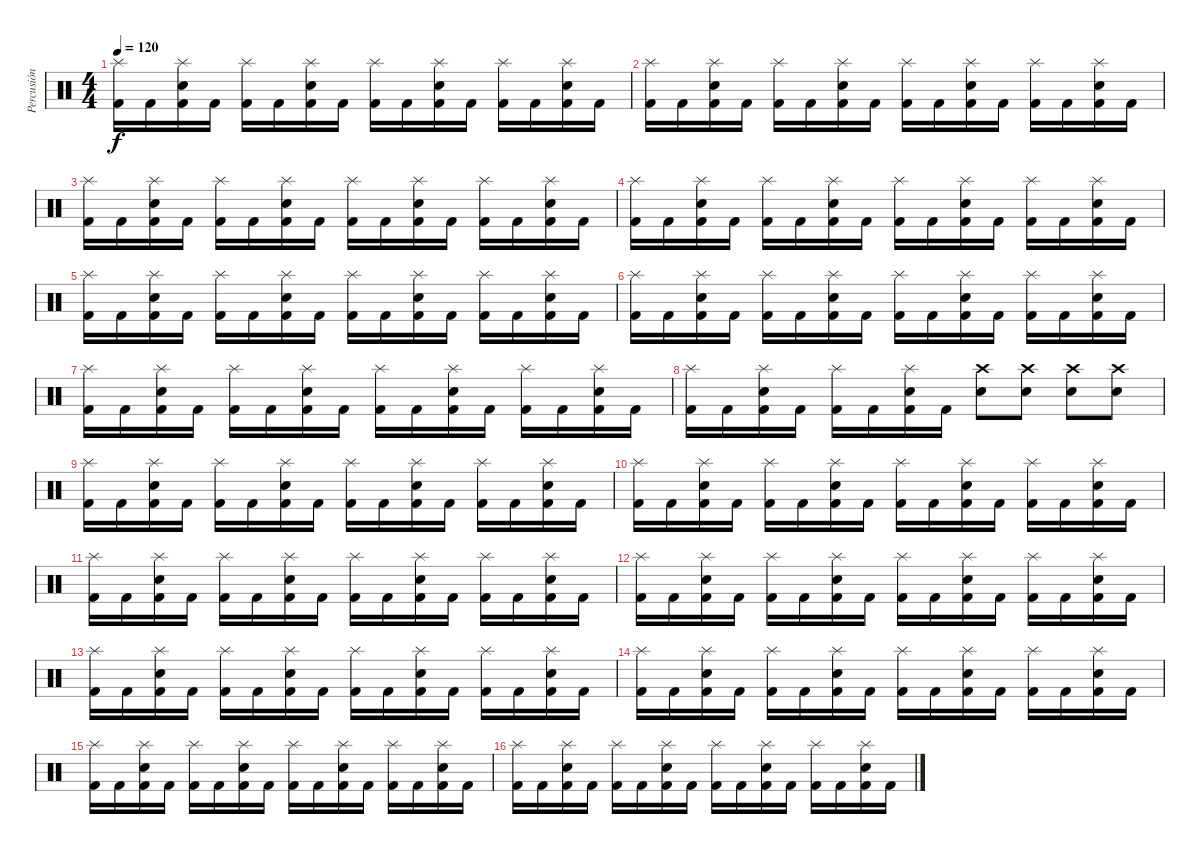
\track ("Percusión" "Percusión") {instrument percussion}
\staff {score}
\articulation defaults
\ts (4 4)
\tempo 120
\clef neutral
\ks c
("Kick (hit) 2" "Splash (hit)").16{dy f} "Kick (hit) 2".16 ("Kick (hit) 2" "Splash (hit)" "Electric Snare (hit)").16 "Kick (hit) 2".16 ("Kick (hit) 2" "Splash (hit)").16 "Kick (hit) 2".16 ("Kick (hit) 2" "Splash (hit)" "Electric Snare (hit)").16 "Kick (hit) 2".16 ("Kick (hit) 2" "Splash (hit)").16 "Kick (hit) 2".16 ("Kick (hit) 2" "Splash (hit)" "Electric Snare (hit)").16 "Kick (hit) 2".16 ("Kick (hit) 2" "Splash (hit)").16 "Kick (hit) 2".16 ("Kick (hit) 2" "Splash (hit)" "Electric Snare (hit)").16 "Kick (hit) 2".16 |
("Kick (hit) 2" "Splash (hit)").16 "Kick (hit) 2".16 ("Kick (hit) 2" "Splash (hit)" "Electric Snare (hit)").16 "Kick (hit) 2".16 ("Kick (hit) 2" "Splash (hit)").16 "Kick (hit) 2".16 ("Kick (hit) 2" "Splash (hit)" "Electric Snare (hit)").16 "Kick (hit) 2".16 ("Kick (hit) 2" "Splash (hit)").16 "Kick (hit) 2".16 ("Kick (hit) 2" "Splash (hit)" "Electric Snare (hit)").16 "Kick (hit) 2".16 ("Kick (hit) 2" "Splash (hit)").16 "Kick (hit) 2".16 ("Kick (hit) 2" "Splash (hit)" "Electric Snare (hit)").16 "Kick (hit) 2".16 |
("Kick (hit) 2" "Splash (hit)").16 "Kick (hit) 2".16 ("Kick (hit) 2" "Splash (hit)" "Electric Snare (hit)").16 "Kick (hit) 2".16 ("Kick (hit) 2" "Splash (hit)").16 "Kick (hit) 2".16 ("Kick (hit) 2" "Splash (hit)" "Electric Snare (hit)").16 "Kick (hit) 2".16 ("Kick (hit) 2" "Splash (hit)").16 "Kick (hit) 2".16 ("Kick (hit) 2" "Splash (hit)" "Electric Snare (hit)").16 "Kick (hit) 2".16 ("Kick (hit) 2" "Splash (hit)").16 "Kick (hit) 2".16 ("Kick (hit) 2" "Splash (hit)" "Electric Snare (hit)").16 "Kick (hit) 2".16 |
("Kick (hit) 2" "Splash (hit)").16 "Kick (hit) 2".16 ("Kick (hit) 2" "Splash (hit)" "Electric Snare (hit)").16 "Kick (hit) 2".16 ("Kick (hit) 2" "Splash (hit)").16 "Kick (hit) 2".16 ("Kick (hit) 2" "Splash (hit)" "Electric Snare (hit)").16 "Kick (hit) 2".16 ("Kick (hit) 2" "Splash (hit)").16 "Kick (hit) 2".16 ("Kick (hit) 2" "Splash (hit)" "Electric Snare (hit)").16 "Kick (hit) 2".16 ("Kick (hit) 2" "Splash (hit)").16 "Kick (hit) 2".16 ("Kick (hit) 2" "Splash (hit)" "Electric Snare (hit)").16 "Kick (hit) 2".16 |
("Kick (hit) 2" "Splash (hit)").16 "Kick (hit) 2".16 ("Kick (hit) 2" "Splash (hit)" "Electric Snare (hit)").16 "Kick (hit) 2".16 ("Kick (hit) 2" "Splash (hit)").16 "Kick (hit) 2".16 ("Kick (hit) 2" "Splash (hit)" "Electric Snare (hit)").16 "Kick (hit) 2".16 ("Kick (hit) 2" "Splash (hit)").16 "Kick (hit) 2".16 ("Kick (hit) 2" "Splash (hit)" "Electric Snare (hit)").16 "Kick (hit) 2".16 ("Kick (hit) 2" "Splash (hit)").16 "Kick (hit) 2".16 ("Kick (hit) 2" "Splash (hit)" "Electric Snare (hit)").16 "Kick (hit) 2".16 |
("Kick (hit) 2" "Splash (hit)").16 "Kick (hit) 2".16 ("Kick (hit) 2" "Splash (hit)" "Electric Snare (hit)").16 "Kick (hit) 2".16 ("Kick (hit) 2" "Splash (hit)").16 "Kick (hit) 2".16 ("Kick (hit) 2" "Splash (hit)" "Electric Snare (hit)").16 "Kick (hit) 2".16 ("Kick (hit) 2" "Splash (hit)").16 "Kick (hit) 2".16 ("Kick (hit) 2" "Splash (hit)" "Electric Snare (hit)").16 "Kick (hit) 2".16 ("Kick (hit) 2" "Splash (hit)").16 "Kick (hit) 2".16 ("Kick (hit) 2" "Splash (hit)" "Electric Snare (hit)").16 "Kick (hit) 2".16 |
("Kick (hit) 2" "Splash (hit)").16 "Kick (hit) 2".16 ("Kick (hit) 2" "Splash (hit)" "Electric Snare (hit)").16 "Kick (hit) 2".16 ("Kick (hit) 2" "Splash (hit)").16 "Kick (hit) 2".16 ("Kick (hit) 2" "Splash (hit)" "Electric Snare (hit)").16 "Kick (hit) 2".16 ("Kick (hit) 2" "Splash (hit)").16 "Kick (hit) 2".16 ("Kick (hit) 2" "Splash (hit)" "Electric Snare (hit)").16 "Kick (hit) 2".16 ("Kick (hit) 2" "Splash (hit)").16 "Kick (hit) 2".16 ("Kick (hit) 2" "Splash (hit)" "Electric Snare (hit)").16 "Kick (hit) 2".16 |
("Kick (hit) 2" "Splash (hit)").16 "Kick (hit) 2".16 ("Kick (hit) 2" "Splash (hit)" "Electric Snare (hit)").16 "Kick (hit) 2".16 ("Kick (hit) 2" "Splash (hit)").16 "Kick (hit) 2".16 ("Kick (hit) 2" "Splash (hit)" "Electric Snare (hit)").16 "Kick (hit) 2".16 ("Crash high (hit)" "Electric Snare (hit)").8 ("Crash high (hit)" "Electric Snare (hit)").8 ("Crash high (hit)" "Electric Snare (hit)").8 ("Crash high (hit)" "Electric Snare (hit)").8 |
("Kick (hit) 2" "Splash (hit)").16 "Kick (hit) 2".16 ("Kick (hit) 2" "Splash (hit)" "Electric Snare (hit)").16 "Kick (hit) 2".16 ("Kick (hit) 2" "Splash (hit)").16 "Kick (hit) 2".16 ("Kick (hit) 2" "Splash (hit)" "Electric Snare (hit)").16 "Kick (hit) 2".16 ("Kick (hit) 2" "Splash (hit)").16 "Kick (hit) 2".16 ("Kick (hit) 2" "Splash (hit)" "Electric Snare (hit)").16 "Kick (hit) 2".16 ("Kick (hit) 2" "Splash (hit)").16 "Kick (hit) 2".16 ("Kick (hit) 2" "Splash (hit)" "Electric Snare (hit)").16 "Kick (hit) 2".16 |
("Kick (hit) 2" "Splash (hit)").16 "Kick (hit) 2".16 ("Kick (hit) 2" "Splash (hit)" "Electric Snare (hit)").16 "Kick (hit) 2".16 ("Kick (hit) 2" "Splash (hit)").16 "Kick (hit) 2".16 ("Kick (hit) 2" "Splash (hit)" "Electric Snare (hit)").16 "Kick (hit) 2".16 ("Kick (hit) 2" "Splash (hit)").16 "Kick (hit) 2".16 ("Kick (hit) 2" "Splash (hit)" "Electric Snare (hit)").16 "Kick (hit) 2".16 ("Kick (hit) 2" "Splash (hit)").16 "Kick (hit) 2".16 ("Kick (hit) 2" "Splash (hit)" "Electric Snare (hit)").16 "Kick (hit) 2".16 |
("Kick (hit) 2" "Splash (hit)").16 "Kick (hit) 2".16 ("Kick (hit) 2" "Splash (hit)" "Electric Snare (hit)").16 "Kick (hit) 2".16 ("Kick (hit) 2" "Splash (hit)").16 "Kick (hit) 2".16 ("Kick (hit) 2" "Splash (hit)" "Electric Snare (hit)").16 "Kick (hit) 2".16 ("Kick (hit) 2" "Splash (hit)").16 "Kick (hit) 2".16 ("Kick (hit) 2" "Splash (hit)" "Electric Snare (hit)").16 "Kick (hit) 2".16 ("Kick (hit) 2" "Splash (hit)").16 "Kick (hit) 2".16 ("Kick (hit) 2" "Splash (hit)" "Electric Snare (hit)").16 "Kick (hit) 2".16 |
("Kick (hit) 2" "Splash (hit)").16 "Kick (hit) 2".16 ("Kick (hit) 2" "Splash (hit)" "Electric Snare (hit)").16 "Kick (hit) 2".16 ("Kick (hit) 2" "Splash (hit)").16 "Kick (hit) 2".16 ("Kick (hit) 2" "Splash (hit)" "Electric Snare (hit)").16 "Kick (hit) 2".16 ("Kick (hit) 2" "Splash (hit)").16 "Kick (hit) 2".16 ("Kick (hit) 2" "Splash (hit)" "Electric Snare (hit)").16 "Kick (hit) 2".16 ("Kick (hit) 2" "Splash (hit)").16 "Kick (hit) 2".16 ("Kick (hit) 2" "Splash (hit)" "Electric Snare (hit)").16 "Kick (hit) 2".16 |
("Kick (hit) 2" "Splash (hit)").16 "Kick (hit) 2".16 ("Kick (hit) 2" "Splash (hit)" "Electric Snare (hit)").16 "Kick (hit) 2".16 ("Kick (hit) 2" "Splash (hit)").16 "Kick (hit) 2".16 ("Kick (hit) 2" "Splash (hit)" "Electric Snare (hit)").16 "Kick (hit) 2".16 ("Kick (hit) 2" "Splash (hit)").16 "Kick (hit) 2".16 ("Kick (hit) 2" "Splash (hit)" "Electric Snare (hit)").16 "Kick (hit) 2".16 ("Kick (hit) 2" "Splash (hit)").16 "Kick (hit) 2".16 ("Kick (hit) 2" "Splash (hit)" "Electric Snare (hit)").16 "Kick (hit) 2".16 |
("Kick (hit) 2" "Splash (hit)").16 "Kick (hit) 2".16 ("Kick (hit) 2" "Splash (hit)" "Electric Snare (hit)").16 "Kick (hit) 2".16 ("Kick (hit) 2" "Splash (hit)").16 "Kick (hit) 2".16 ("Kick (hit) 2" "Splash (hit)" "Electric Snare (hit)").16 "Kick (hit) 2".16 ("Kick (hit) 2" "Splash (hit)").16 "Kick (hit) 2".16 ("Kick (hit) 2" "Splash (hit)" "Electric Snare (hit)").16 "Kick (hit) 2".16 ("Kick (hit) 2" "Splash (hit)").16 "Kick (hit) 2".16 ("Kick (hit) 2" "Splash (hit)" "Electric Snare (hit)").16 "Kick (hit) 2".16 |
("Kick (hit) 2" "Splash (hit)").16 "Kick (hit) 2".16 ("Kick (hit) 2" "Splash (hit)" "Electric Snare (hit)").16 "Kick (hit) 2".16 ("Kick (hit) 2" "Splash (hit)").16 "Kick (hit) 2".16 ("Kick (hit) 2" "Splash (hit)" "Electric Snare (hit)").16 "Kick (hit) 2".16 ("Kick (hit) 2" "Splash (hit)").16 "Kick (hit) 2".16 ("Kick (hit) 2" "Splash (hit)" "Electric Snare (hit)").16 "Kick (hit) 2".16 ("Kick (hit) 2" "Splash (hit)").16 "Kick (hit) 2".16 ("Kick (hit) 2" "Splash (hit)" "Electric Snare (hit)").16 "Kick (hit) 2".16 |
("Kick (hit) 2" "Splash (hit)").16 "Kick (hit) 2".16 ("Kick (hit) 2" "Splash (hit)" "Electric Snare (hit)").16 "Kick (hit) 2".16 ("Kick (hit) 2" "Splash (hit)").16 "Kick (hit) 2".16 ("Kick (hit) 2" "Splash (hit)" "Electric Snare (hit)").16 "Kick (hit) 2".16 ("Kick (hit) 2" "Splash (hit)").16 "Kick (hit) 2".16 ("Kick (hit) 2" "Splash (hit)" "Electric Snare (hit)").16 "Kick (hit) 2".16 ("Kick (hit) 2" "Splash (hit)").16 "Kick (hit) 2".16 ("Kick (hit) 2" "Splash (hit)" "Electric Snare (hit)").16 "Kick (hit) 2".16
